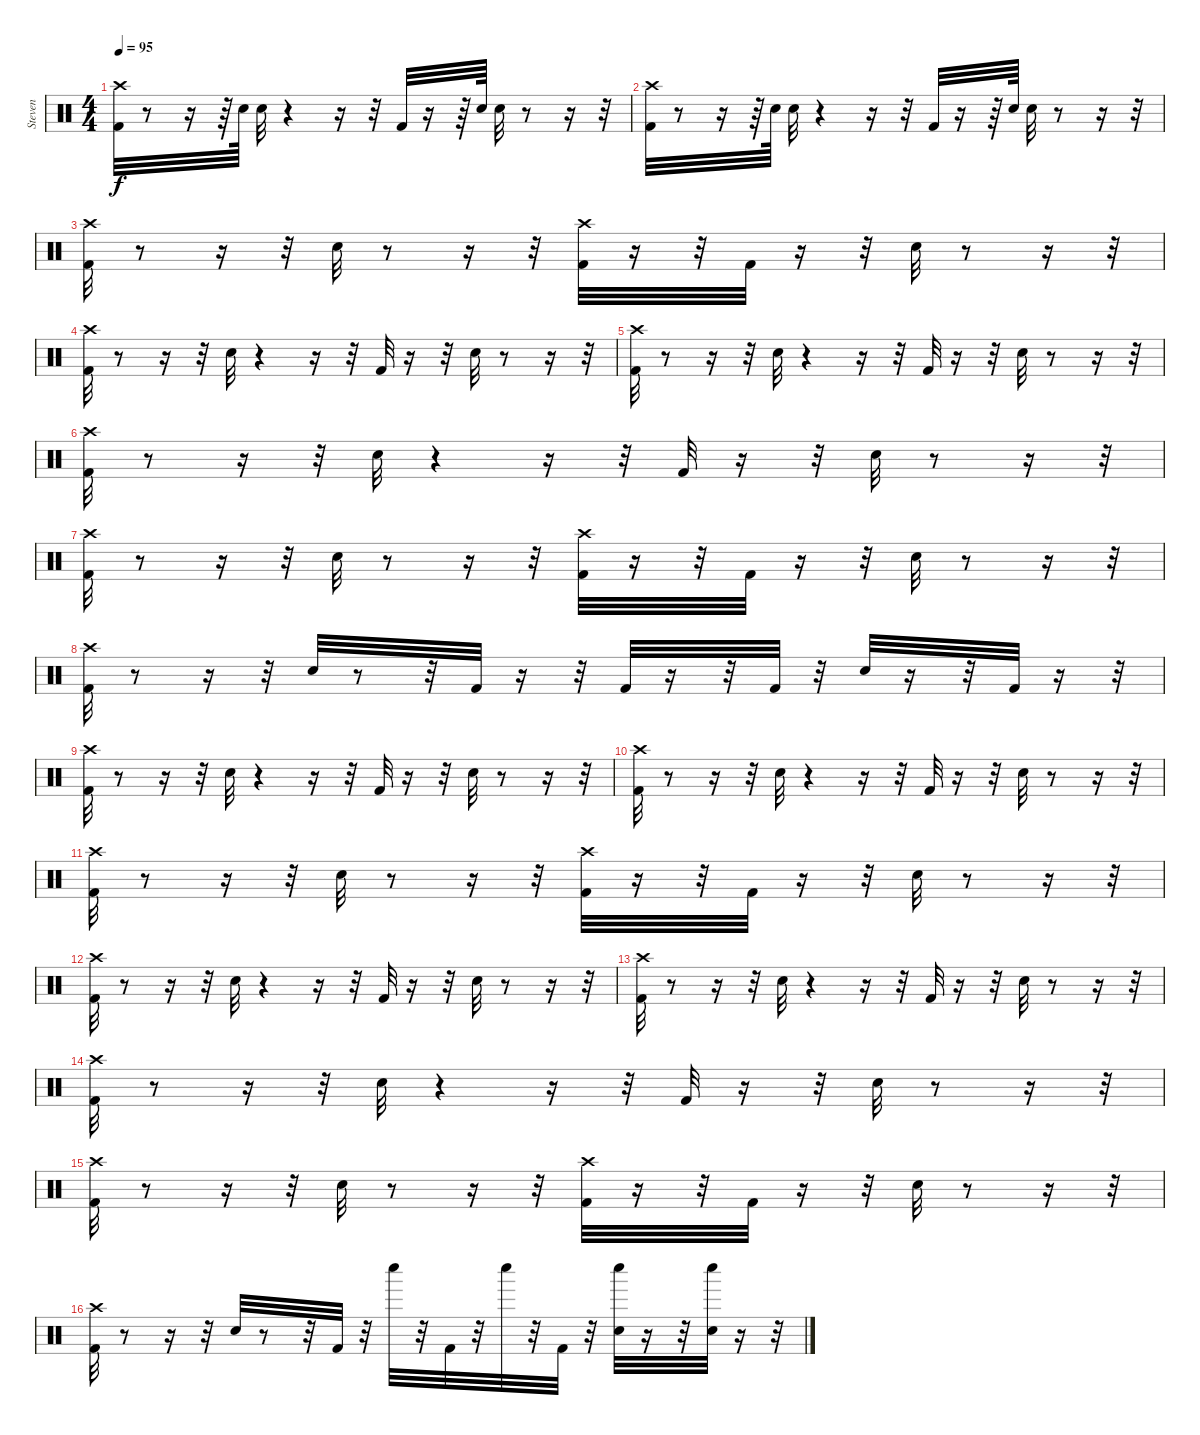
\track ("Steven" "Steven") {instrument percussion}
\staff {score}
\articulation defaults
\ts (4 4)
\tempo 95
\clef neutral
\ks c
("Kick (hit) 2" "Crash high (hit)").32{dy f} r.8 r.16 r.64 "Snare (hit) 2".64 "Snare (hit) 2".32 r.4 r.16 r.32 "Kick (hit) 2".32 r.16 r.64 "Snare (hit) 2".64 "Snare (hit) 2".32 r.8 r.16 r.32 |
("Kick (hit) 2" "Crash high (hit)").32 r.8 r.16 r.64 "Snare (hit) 2".64 "Snare (hit) 2".32 r.4 r.16 r.32 "Kick (hit) 2".32 r.16 r.64 "Snare (hit) 2".64 "Snare (hit) 2".32 r.8 r.16 r.32 |
("Kick (hit) 2" "Crash high (hit)").32 r.8 r.16 r.32 "Snare (hit) 2".32 r.8 r.16 r.32 ("Kick (hit) 2" "Crash high (hit)").32 r.16 r.32 "Kick (hit) 2".32 r.16 r.32 "Snare (hit) 2".32 r.8 r.16 r.32 |
("Kick (hit) 2" "Crash high (hit)").32 r.8 r.16 r.32 "Snare (hit) 2".32 r.4 r.16 r.32 "Kick (hit) 2".32 r.16 r.32 "Snare (hit) 2".32 r.8 r.16 r.32 |
("Kick (hit) 2" "Crash high (hit)").32 r.8 r.16 r.32 "Snare (hit) 2".32 r.4 r.16 r.32 "Kick (hit) 2".32 r.16 r.32 "Snare (hit) 2".32 r.8 r.16 r.32 |
("Kick (hit) 2" "Crash high (hit)").32 r.8 r.16 r.32 "Snare (hit) 2".32 r.4 r.16 r.32 "Kick (hit) 2".32 r.16 r.32 "Snare (hit) 2".32 r.8 r.16 r.32 |
("Kick (hit) 2" "Crash high (hit)").32 r.8 r.16 r.32 "Snare (hit) 2".32 r.8 r.16 r.32 ("Kick (hit) 2" "Crash high (hit)").32 r.16 r.32 "Kick (hit) 2".32 r.16 r.32 "Snare (hit) 2".32 r.8 r.16 r.32 |
("Kick (hit) 2" "Crash high (hit)").32 r.8 r.16 r.32 "Snare (hit) 2".32 r.8 r.32 "Kick (hit) 2".32 r.16 r.32 "Kick (hit) 2".32 r.16 r.32 "Kick (hit) 2".32 r.32 "Snare (hit) 2".32 r.16 r.32 "Kick (hit) 2".32 r.16 r.32 |
("Kick (hit) 2" "Crash high (hit)").32 r.8 r.16 r.32 "Snare (hit) 2".32 r.4 r.16 r.32 "Kick (hit) 2".32 r.16 r.32 "Snare (hit) 2".32 r.8 r.16 r.32 |
("Kick (hit) 2" "Crash high (hit)").32 r.8 r.16 r.32 "Snare (hit) 2".32 r.4 r.16 r.32 "Kick (hit) 2".32 r.16 r.32 "Snare (hit) 2".32 r.8 r.16 r.32 |
("Kick (hit) 2" "Crash high (hit)").32 r.8 r.16 r.32 "Snare (hit) 2".32 r.8 r.16 r.32 ("Kick (hit) 2" "Crash high (hit)").32 r.16 r.32 "Kick (hit) 2".32 r.16 r.32 "Snare (hit) 2".32 r.8 r.16 r.32 |
("Kick (hit) 2" "Crash high (hit)").32 r.8 r.16 r.32 "Snare (hit) 2".32 r.4 r.16 r.32 "Kick (hit) 2".32 r.16 r.32 "Snare (hit) 2".32 r.8 r.16 r.32 |
("Kick (hit) 2" "Crash high (hit)").32 r.8 r.16 r.32 "Snare (hit) 2".32 r.4 r.16 r.32 "Kick (hit) 2".32 r.16 r.32 "Snare (hit) 2".32 r.8 r.16 r.32 |
("Kick (hit) 2" "Crash high (hit)").32 r.8 r.16 r.32 "Snare (hit) 2".32 r.4 r.16 r.32 "Kick (hit) 2".32 r.16 r.32 "Snare (hit) 2".32 r.8 r.16 r.32 |
("Kick (hit) 2" "Crash high (hit)").32 r.8 r.16 r.32 "Snare (hit) 2".32 r.8 r.16 r.32 ("Kick (hit) 2" "Crash high (hit)").32 r.16 r.32 "Kick (hit) 2".32 r.16 r.32 "Snare (hit) 2".32 r.8 r.16 r.32 |
("Kick (hit) 2" "Crash high (hit)").32 r.8 r.16 r.32 "Snare (hit) 2".32 r.8 r.32 "Kick (hit) 2".32 r.32 "Whistle low (hit)".32 r.32 "Kick (hit) 2".32 r.32 "Whistle low (hit)".32 r.32 "Kick (hit) 2".32 r.32 ("Snare (hit) 2" "Whistle low (hit)").32 r.16 r.32 ("Snare (hit) 2" "Whistle low (hit)").32 r.16 r.32
